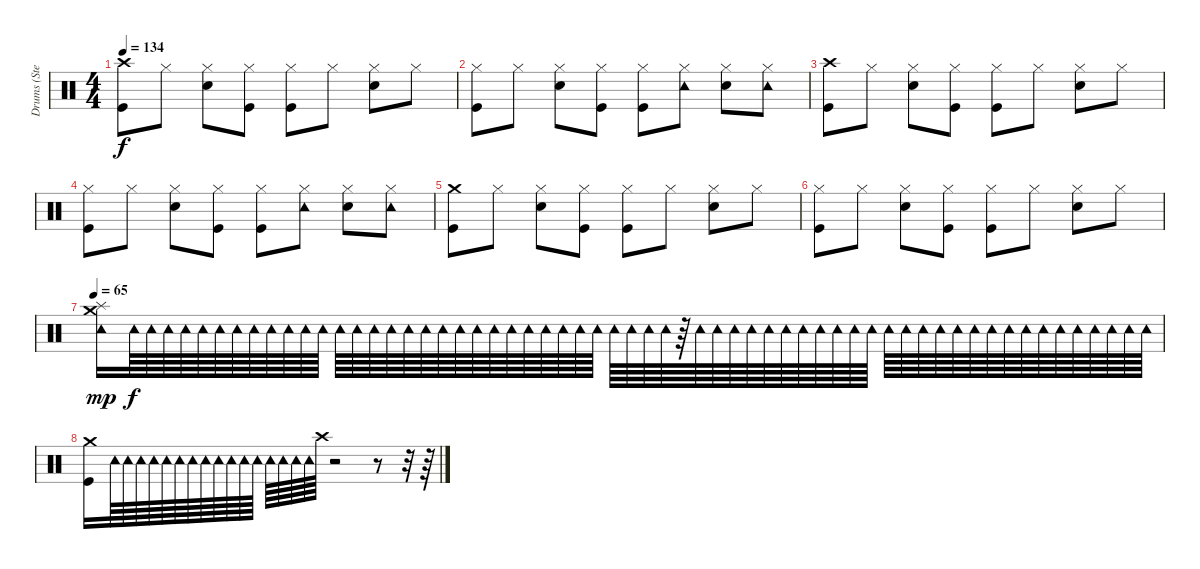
\track ("Drums (Steven Adler)" "Drums (Ste") {instrument percussion}
\staff {score}
\articulation defaults
\ts (4 4)
\tempo 134
\clef neutral
\ks c
("Crash high (hit)" "Kick (hit)").8{dy f} "Hi-Hat (closed)".8 ("Hi-Hat (closed)" "Snare (hit) 2").8 ("Hi-Hat (closed)" "Kick (hit)").8 ("Hi-Hat (closed)" "Kick (hit)").8 "Hi-Hat (closed)".8 ("Hi-Hat (closed)" "Snare (hit) 2").8 "Hi-Hat (closed)".8 |
("Hi-Hat (closed)" "Kick (hit)").8 "Hi-Hat (closed)".8 ("Hi-Hat (closed)" "Snare (hit) 2").8 ("Hi-Hat (closed)" "Kick (hit)").8 ("Hi-Hat (closed)" "Kick (hit)").8 ("Hi-Hat (closed)" "Tambourine (hit)").8 ("Hi-Hat (closed)" "Snare (hit) 2").8 ("Hi-Hat (closed)" "Tambourine (hit)").8 |
("Crash high (hit)" "Kick (hit)").8 "Hi-Hat (closed)".8 ("Hi-Hat (closed)" "Snare (hit) 2").8 ("Hi-Hat (closed)" "Kick (hit)").8 ("Hi-Hat (closed)" "Kick (hit)").8 "Hi-Hat (closed)".8 ("Hi-Hat (closed)" "Snare (hit) 2").8 "Hi-Hat (closed)".8 |
("Hi-Hat (closed)" "Kick (hit)").8 "Hi-Hat (closed)".8 ("Hi-Hat (closed)" "Snare (hit) 2").8 ("Hi-Hat (closed)" "Kick (hit)").8 ("Hi-Hat (closed)" "Kick (hit)").8 ("Hi-Hat (closed)" "Tambourine (hit)").8 ("Hi-Hat (closed)" "Snare (hit) 2").8 ("Hi-Hat (closed)" "Tambourine (hit)").8 |
("Crash medium (hit)" "Kick (hit)").8 "Hi-Hat (closed)".8 ("Hi-Hat (closed)" "Snare (hit) 2").8 ("Hi-Hat (closed)" "Kick (hit)").8 ("Hi-Hat (closed)" "Kick (hit)").8 "Hi-Hat (closed)".8 ("Hi-Hat (closed)" "Snare (hit) 2").8 "Hi-Hat (closed)".8 |
("Hi-Hat (closed)" "Kick (hit)").8 "Hi-Hat (closed)".8 ("Hi-Hat (closed)" "Snare (hit) 2").8 ("Hi-Hat (closed)" "Kick (hit)").8 ("Hi-Hat (closed)" "Kick (hit)").8 "Hi-Hat (closed)".8 ("Hi-Hat (closed)" "Snare (hit) 2").8 "Hi-Hat (closed)".8 |
\tempo 65
("Splash (hit)" "Crash medium (hit)" "Tambourine (hit)").16{dy mp} "Tambourine (hit)".64{dy f} "Tambourine (hit)".64 "Tambourine (hit)".64 "Tambourine (hit)".64 "Tambourine (hit)".64 "Tambourine (hit)".64 "Tambourine (hit)".64 "Tambourine (hit)".64 "Tambourine (hit)".64 "Tambourine (hit)".64 "Tambourine (hit)".64 "Tambourine (hit)".64 "Tambourine (hit)".64 "Tambourine (hit)".64 "Tambourine (hit)".64 "Tambourine (hit)".64 "Tambourine (hit)".64 "Tambourine (hit)".64 "Tambourine (hit)".64 "Tambourine (hit)".64 "Tambourine (hit)".64 "Tambourine (hit)".64 "Tambourine (hit)".64 "Tambourine (hit)".64 "Tambourine (hit)".64 "Tambourine (hit)".64 "Tambourine (hit)".64 "Tambourine (hit)".64 "Tambourine (hit)".64 "Tambourine (hit)".64 "Tambourine (hit)".64 "Tambourine (hit)".64 r.64 "Tambourine (hit)".64 "Tambourine (hit)".64 "Tambourine (hit)".64 "Tambourine (hit)".64 "Tambourine (hit)".64 "Tambourine (hit)".64 "Tambourine (hit)".64 "Tambourine (hit)".64 "Tambourine (hit)".64 "Tambourine (hit)".64 "Tambourine (hit)".64 "Tambourine (hit)".64 "Tambourine (hit)".64 "Tambourine (hit)".64 "Tambourine (hit)".64 "Tambourine (hit)".64 "Tambourine (hit)".64 "Tambourine (hit)".64 "Tambourine (hit)".64 "Tambourine (hit)".64 "Tambourine (hit)".64 "Tambourine (hit)".64 "Tambourine (hit)".64 "Tambourine (hit)".64 "Tambourine (hit)".64 "Tambourine (hit)".64 "Tambourine (hit)".64 |
("Crash medium (hit)" "Kick (hit)").16 "Tambourine (hit)".64 "Tambourine (hit)".64 "Tambourine (hit)".64 "Tambourine (hit)".64 "Tambourine (hit)".64 "Tambourine (hit)".64 "Tambourine (hit)".64 "Tambourine (hit)".64 "Tambourine (hit)".64 "Tambourine (hit)".64 "Tambourine (hit)".64 "Tambourine (hit)".64 "Tambourine (hit)".64 "Tambourine (hit)".64 "Tambourine (hit)".64 "Tambourine (hit)".64 "Crash high (hit)".64 r.2 r.8 r.32 r.64
